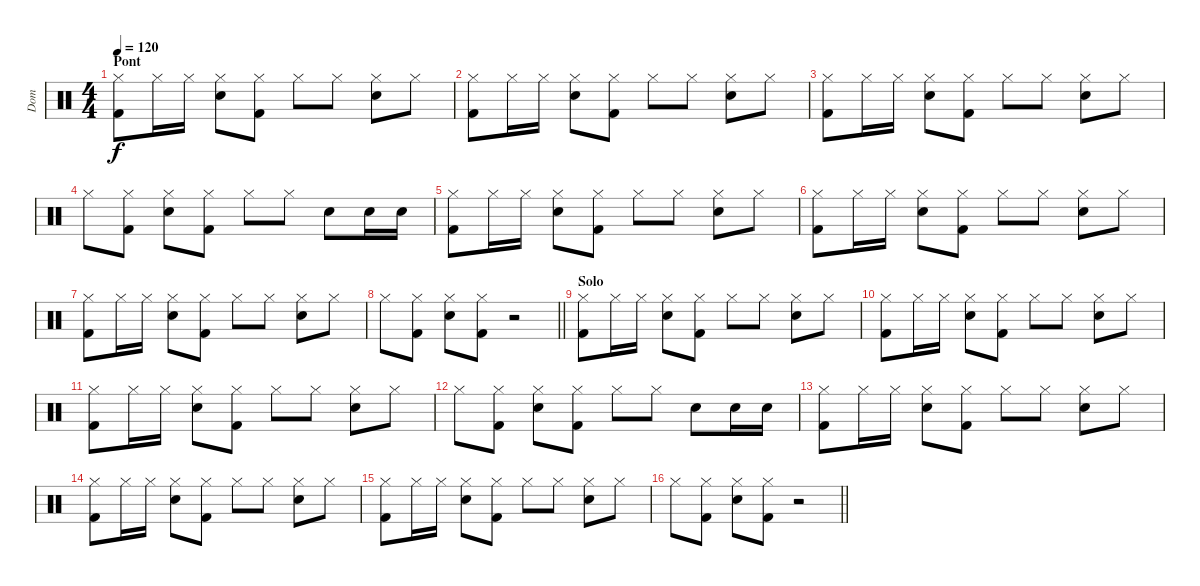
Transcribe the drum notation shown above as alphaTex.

\track ("Dom" "Dom") {instrument percussion}
\staff {score}
\articulation defaults
\ts (4 4)
\section ("" "Pont")
\tempo 120
\clef neutral
\ks c
("Kick (hit) 2" "Hi-Hat (closed)").8{dy f} "Hi-Hat (closed)".16 "Hi-Hat (closed)".16 ("Snare (hit) 2" "Hi-Hat (closed)").8 ("Kick (hit) 2" "Hi-Hat (closed)").8 "Hi-Hat (closed)".8 "Hi-Hat (closed)".8 ("Snare (hit) 2" "Hi-Hat (closed)").8 "Hi-Hat (closed)".8 |
("Kick (hit) 2" "Hi-Hat (closed)").8 "Hi-Hat (closed)".16 "Hi-Hat (closed)".16 ("Snare (hit) 2" "Hi-Hat (closed)").8 ("Kick (hit) 2" "Hi-Hat (closed)").8 "Hi-Hat (closed)".8 "Hi-Hat (closed)".8 ("Snare (hit) 2" "Hi-Hat (closed)").8 "Hi-Hat (closed)".8 |
("Kick (hit) 2" "Hi-Hat (closed)").8 "Hi-Hat (closed)".16 "Hi-Hat (closed)".16 ("Snare (hit) 2" "Hi-Hat (closed)").8 ("Kick (hit) 2" "Hi-Hat (closed)").8 "Hi-Hat (closed)".8 "Hi-Hat (closed)".8 ("Snare (hit) 2" "Hi-Hat (closed)").8 "Hi-Hat (closed)".8 |
"Hi-Hat (closed)".8 ("Kick (hit) 2" "Hi-Hat (closed)").8 ("Snare (hit) 2" "Hi-Hat (closed)").8 ("Kick (hit) 2" "Hi-Hat (closed)").8 "Hi-Hat (closed)".8 "Hi-Hat (closed)".8 "Snare (hit) 2".8 "Snare (hit) 2".16 "Snare (hit) 2".16 |
("Kick (hit) 2" "Hi-Hat (closed)").8 "Hi-Hat (closed)".16 "Hi-Hat (closed)".16 ("Snare (hit) 2" "Hi-Hat (closed)").8 ("Kick (hit) 2" "Hi-Hat (closed)").8 "Hi-Hat (closed)".8 "Hi-Hat (closed)".8 ("Snare (hit) 2" "Hi-Hat (closed)").8 "Hi-Hat (closed)".8 |
("Kick (hit) 2" "Hi-Hat (closed)").8 "Hi-Hat (closed)".16 "Hi-Hat (closed)".16 ("Snare (hit) 2" "Hi-Hat (closed)").8 ("Kick (hit) 2" "Hi-Hat (closed)").8 "Hi-Hat (closed)".8 "Hi-Hat (closed)".8 ("Snare (hit) 2" "Hi-Hat (closed)").8 "Hi-Hat (closed)".8 |
("Kick (hit) 2" "Hi-Hat (closed)").8 "Hi-Hat (closed)".16 "Hi-Hat (closed)".16 ("Snare (hit) 2" "Hi-Hat (closed)").8 ("Kick (hit) 2" "Hi-Hat (closed)").8 "Hi-Hat (closed)".8 "Hi-Hat (closed)".8 ("Snare (hit) 2" "Hi-Hat (closed)").8 "Hi-Hat (closed)".8 |
\barLineRight lightlight "Hi-Hat (closed)".8
("Kick (hit) 2" "Hi-Hat (closed)").8 ("Snare (hit) 2" "Hi-Hat (closed)").8 ("Kick (hit) 2" "Hi-Hat (closed)").8 r.2 |
\section ("" "Solo")
("Kick (hit) 2" "Hi-Hat (closed)").8 "Hi-Hat (closed)".16 "Hi-Hat (closed)".16 ("Snare (hit) 2" "Hi-Hat (closed)").8 ("Kick (hit) 2" "Hi-Hat (closed)").8 "Hi-Hat (closed)".8 "Hi-Hat (closed)".8 ("Snare (hit) 2" "Hi-Hat (closed)").8 "Hi-Hat (closed)".8 |
("Kick (hit) 2" "Hi-Hat (closed)").8 "Hi-Hat (closed)".16 "Hi-Hat (closed)".16 ("Snare (hit) 2" "Hi-Hat (closed)").8 ("Kick (hit) 2" "Hi-Hat (closed)").8 "Hi-Hat (closed)".8 "Hi-Hat (closed)".8 ("Snare (hit) 2" "Hi-Hat (closed)").8 "Hi-Hat (closed)".8 |
("Kick (hit) 2" "Hi-Hat (closed)").8 "Hi-Hat (closed)".16 "Hi-Hat (closed)".16 ("Snare (hit) 2" "Hi-Hat (closed)").8 ("Kick (hit) 2" "Hi-Hat (closed)").8 "Hi-Hat (closed)".8 "Hi-Hat (closed)".8 ("Snare (hit) 2" "Hi-Hat (closed)").8 "Hi-Hat (closed)".8 |
"Hi-Hat (closed)".8 ("Kick (hit) 2" "Hi-Hat (closed)").8 ("Snare (hit) 2" "Hi-Hat (closed)").8 ("Kick (hit) 2" "Hi-Hat (closed)").8 "Hi-Hat (closed)".8 "Hi-Hat (closed)".8 "Snare (hit) 2".8 "Snare (hit) 2".16 "Snare (hit) 2".16 |
("Kick (hit) 2" "Hi-Hat (closed)").8 "Hi-Hat (closed)".16 "Hi-Hat (closed)".16 ("Snare (hit) 2" "Hi-Hat (closed)").8 ("Kick (hit) 2" "Hi-Hat (closed)").8 "Hi-Hat (closed)".8 "Hi-Hat (closed)".8 ("Snare (hit) 2" "Hi-Hat (closed)").8 "Hi-Hat (closed)".8 |
("Kick (hit) 2" "Hi-Hat (closed)").8 "Hi-Hat (closed)".16 "Hi-Hat (closed)".16 ("Snare (hit) 2" "Hi-Hat (closed)").8 ("Kick (hit) 2" "Hi-Hat (closed)").8 "Hi-Hat (closed)".8 "Hi-Hat (closed)".8 ("Snare (hit) 2" "Hi-Hat (closed)").8 "Hi-Hat (closed)".8 |
("Kick (hit) 2" "Hi-Hat (closed)").8 "Hi-Hat (closed)".16 "Hi-Hat (closed)".16 ("Snare (hit) 2" "Hi-Hat (closed)").8 ("Kick (hit) 2" "Hi-Hat (closed)").8 "Hi-Hat (closed)".8 "Hi-Hat (closed)".8 ("Snare (hit) 2" "Hi-Hat (closed)").8 "Hi-Hat (closed)".8 |
\barLineRight lightlight "Hi-Hat (closed)".8
("Kick (hit) 2" "Hi-Hat (closed)").8 ("Snare (hit) 2" "Hi-Hat (closed)").8 ("Kick (hit) 2" "Hi-Hat (closed)").8 r.2
